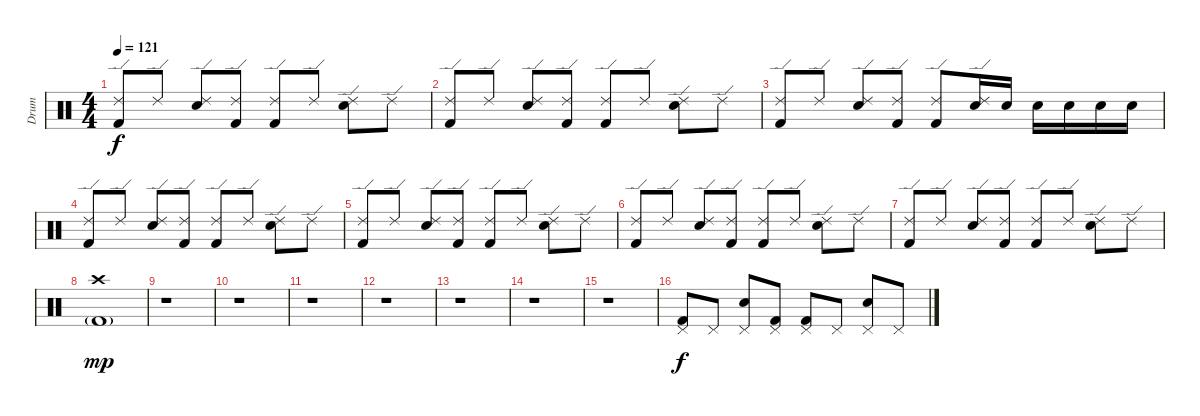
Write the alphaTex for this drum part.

\track ("Drum" "Drum") {instrument percussion}
\staff {score}
\articulation defaults
\ts (4 4)
\tempo 121
\clef neutral
\ks c
("Ride (edge) 2" "Kick (hit) 2").8{dy f} "Ride (edge) 2".8 ("Ride (edge) 2" "Snare (hit) 2").8 ("Ride (edge) 2" "Kick (hit) 2").8 ("Ride (edge) 2" "Kick (hit) 2").8 "Ride (edge) 2".8 ("Ride (edge) 2" "Snare (hit) 2").8 "Ride (edge) 2".8 |
("Ride (edge) 2" "Kick (hit) 2").8 "Ride (edge) 2".8 ("Ride (edge) 2" "Snare (hit) 2").8 ("Ride (edge) 2" "Kick (hit) 2").8 ("Ride (edge) 2" "Kick (hit) 2").8 "Ride (edge) 2".8 ("Ride (edge) 2" "Snare (hit) 2").8 "Ride (edge) 2".8 |
("Ride (edge) 2" "Kick (hit) 2").8 "Ride (edge) 2".8 ("Ride (edge) 2" "Snare (hit) 2").8 ("Ride (edge) 2" "Kick (hit) 2").8 ("Ride (edge) 2" "Kick (hit) 2").8 ("Ride (edge) 2" "Snare (hit) 2").16 "Snare (hit) 2".16 "Snare (hit) 2".16 "Snare (hit) 2".16 "Snare (hit) 2".16 "Snare (hit) 2".16 |
("Ride (edge) 2" "Kick (hit) 2").8 "Ride (edge) 2".8 ("Ride (edge) 2" "Snare (hit) 2").8 ("Ride (edge) 2" "Kick (hit) 2").8 ("Ride (edge) 2" "Kick (hit) 2").8 "Ride (edge) 2".8 ("Ride (edge) 2" "Snare (hit) 2").8 "Ride (edge) 2".8 |
("Ride (edge) 2" "Kick (hit) 2").8 "Ride (edge) 2".8 ("Ride (edge) 2" "Snare (hit) 2").8 ("Ride (edge) 2" "Kick (hit) 2").8 ("Ride (edge) 2" "Kick (hit) 2").8 "Ride (edge) 2".8 ("Ride (edge) 2" "Snare (hit) 2").8 "Ride (edge) 2".8 |
("Ride (edge) 2" "Kick (hit) 2").8 "Ride (edge) 2".8 ("Ride (edge) 2" "Snare (hit) 2").8 ("Ride (edge) 2" "Kick (hit) 2").8 ("Ride (edge) 2" "Kick (hit) 2").8 "Ride (edge) 2".8 ("Ride (edge) 2" "Snare (hit) 2").8 "Ride (edge) 2".8 |
("Ride (edge) 2" "Kick (hit) 2").8 "Ride (edge) 2".8 ("Ride (edge) 2" "Snare (hit) 2").8 ("Ride (edge) 2" "Kick (hit) 2").8 ("Ride (edge) 2" "Kick (hit) 2").8 "Ride (edge) 2".8 ("Ride (edge) 2" "Snare (hit) 2").8 "Ride (edge) 2".8 |
("Crash high (hit)" "Kick (hit) 2"{g}).1{dy mp} |
r.1 |
r.1 |
r.1 |
r.1 |
r.1 |
r.1 |
r.1 |
("Pedal Hi-Hat (hit)" "Kick (hit) 2").8{dy f} "Pedal Hi-Hat (hit)".8 ("Pedal Hi-Hat (hit)" "Snare (hit) 2").8 ("Pedal Hi-Hat (hit)" "Kick (hit) 2").8 ("Pedal Hi-Hat (hit)" "Kick (hit) 2").8 "Pedal Hi-Hat (hit)".8 ("Pedal Hi-Hat (hit)" "Snare (hit) 2").8 "Pedal Hi-Hat (hit)".8
